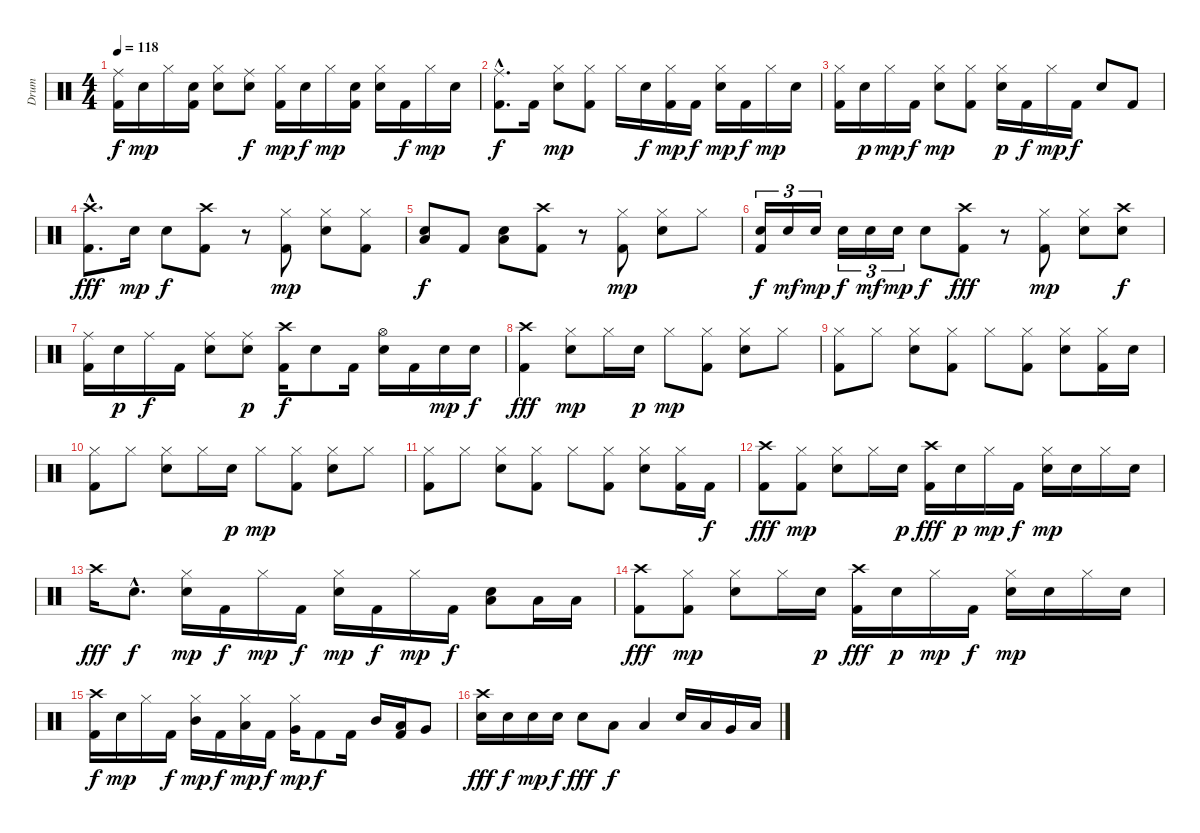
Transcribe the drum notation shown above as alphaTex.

\track ("Drum" "Drum") {instrument percussion}
\staff {score}
\articulation defaults
\ts (4 4)
\tempo 118
\clef neutral
\ks c
("Ride (middle)" "Kick (hit) 2").16{dy f} "Snare (hit) 2".16{dy mp} "Hi-Hat (closed)".16 ("Snare (hit) 2" "Kick (hit) 2").16 ("Hi-Hat (closed)" "Snare (hit) 2").8 ("Ride (middle)" "Snare (hit) 2").8{dy f} ("Hi-Hat (closed)" "Kick (hit) 2").16{dy mp} "Snare (hit) 2".16{dy f} "Hi-Hat (closed)".16{dy mp} ("Snare (hit) 2" "Kick (hit) 2").16 ("Hi-Hat (closed)" "Snare (hit) 2").16 "Kick (hit) 2".16{dy f} "Hi-Hat (closed)".16{dy mp} "Snare (hit) 2".16 |
("Ride (middle)"{hac} "Kick (hit) 2"{hac}).8{d dy f} "Kick (hit) 2".16 ("Hi-Hat (closed)" "Snare (hit) 2").8{dy mp} ("Hi-Hat (closed)" "Kick (hit) 2").8 "Hi-Hat (closed)".16 "Snare (hit) 2".16{dy f} ("Hi-Hat (closed)" "Kick (hit) 2").16{dy mp} "Kick (hit) 2".16{dy f} ("Hi-Hat (closed)" "Snare (hit) 2").16{dy mp} "Kick (hit) 2".16{dy f} "Hi-Hat (closed)".16{dy mp} "Snare (hit) 2".16 |
("Hi-Hat (closed)" "Kick (hit) 2").16 "Snare (hit) 2".16{dy p} "Hi-Hat (closed)".16{dy mp} "Kick (hit) 2".16{dy f} ("Hi-Hat (closed)" "Snare (hit) 2").8{dy mp} ("Hi-Hat (closed)" "Kick (hit) 2").8 ("Hi-Hat (closed)" "Snare (hit) 2").16{dy p} "Kick (hit) 2".16{dy f} "Hi-Hat (closed)".16{dy mp} "Kick (hit) 2".16{dy f} "Snare (hit) 2".8 "Kick (hit) 2".8 |
("Crash high (hit)"{hac} "Kick (hit) 2"{hac}).8{d dy fff} "Snare (hit) 2".16{dy mp} "Snare (hit) 2".8{dy f} ("Crash high (hit)" "Kick (hit) 2").8 r.8 ("Hi-Hat (closed)" "Kick (hit) 2").8{dy mp} ("Hi-Hat (closed)" "Snare (hit) 2").8 ("Hi-Hat (closed)" "Kick (hit) 2").8 |
("Snare (hit) 2" "Low Tom (hit)").8{dy f} "Kick (hit) 2".8 ("Snare (hit) 2" "Low Tom (hit)").8 ("Crash high (hit)" "Kick (hit) 2").8 r.8 ("Hi-Hat (closed)" "Kick (hit) 2").8{dy mp} ("Hi-Hat (closed)" "Snare (hit) 2").8 "Hi-Hat (closed)".8 |
("Snare (hit) 2" "Kick (hit) 2").16{tu (3 2) dy f} "Snare (hit) 2".16{tu (3 2) dy mf} "Snare (hit) 2".16{tu (3 2) dy mp} "Snare (hit) 2".16{tu (3 2) dy f} "Snare (hit) 2".16{tu (3 2) dy mf} "Snare (hit) 2".16{tu (3 2) dy mp} "Snare (hit) 2".8{dy f} ("Kick (hit) 2" "Crash high (hit)").8{dy fff} r.8 ("Hi-Hat (closed)" "Kick (hit) 2").8{dy mp} ("Hi-Hat (closed)" "Snare (hit) 2").8 ("Crash high (hit)" "Snare (hit) 2").8{dy f} |
("Ride (middle)" "Kick (hit) 2").16 "Snare (hit) 2".16{dy p} "Ride (middle)".16{dy f} "Kick (hit) 2".16 ("Snare (hit) 2" "Ride (middle)").8 ("Snare (hit) 2" "Ride (middle)").8{dy p} ("Crash high (hit)" "Kick (hit) 2").16{dy f} "Snare (hit) 2".8 "Kick (hit) 2".16 ("Hi-Hat (open)" "Snare (hit) 2").16 "Kick (hit) 2".16 "Snare (hit) 2".16{dy mp} "Snare (hit) 2".16{dy f} |
("Crash high (hit)" "Kick (hit) 2").4{dy fff} ("Hi-Hat (closed)" "Snare (hit) 2").8{dy mp} "Hi-Hat (closed)".16 "Snare (hit) 2".16{dy p} "Hi-Hat (closed)".8{dy mp} ("Hi-Hat (closed)" "Kick (hit) 2").8 ("Hi-Hat (closed)" "Snare (hit) 2").8 "Hi-Hat (closed)".8 |
("Hi-Hat (closed)" "Kick (hit) 2").8 "Hi-Hat (closed)".8 ("Hi-Hat (closed)" "Snare (hit) 2").8 ("Hi-Hat (closed)" "Kick (hit) 2").8 "Hi-Hat (closed)".8 ("Hi-Hat (closed)" "Kick (hit) 2").8 ("Hi-Hat (closed)" "Snare (hit) 2").8 ("Hi-Hat (closed)" "Kick (hit) 2").16 "Snare (hit) 2".16 |
("Hi-Hat (closed)" "Kick (hit) 2").8 "Hi-Hat (closed)".8 ("Hi-Hat (closed)" "Snare (hit) 2").8 "Hi-Hat (closed)".16 "Snare (hit) 2".16{dy p} "Hi-Hat (closed)".8{dy mp} ("Hi-Hat (closed)" "Kick (hit) 2").8 ("Hi-Hat (closed)" "Snare (hit) 2").8 "Hi-Hat (closed)".8 |
("Hi-Hat (closed)" "Kick (hit) 2").8 "Hi-Hat (closed)".8 ("Hi-Hat (closed)" "Snare (hit) 2").8 ("Hi-Hat (closed)" "Kick (hit) 2").8 "Hi-Hat (closed)".8 ("Hi-Hat (closed)" "Kick (hit) 2").8 ("Hi-Hat (closed)" "Snare (hit) 2").8 ("Hi-Hat (closed)" "Kick (hit) 2").16 "Kick (hit) 2".16{dy f} |
("Crash high (hit)" "Kick (hit) 2").8{dy fff} ("Hi-Hat (closed)" "Kick (hit) 2").8{dy mp} ("Hi-Hat (closed)" "Snare (hit) 2").8 "Hi-Hat (closed)".16 "Snare (hit) 2".16{dy p} ("Crash high (hit)" "Kick (hit) 2").16{dy fff} "Snare (hit) 2".16{dy p} "Hi-Hat (closed)".16{dy mp} "Kick (hit) 2".16{dy f} ("Hi-Hat (closed)" "Snare (hit) 2").16{dy mp} "Snare (hit) 2".16 "Hi-Hat (closed)".16 "Snare (hit) 2".16 |
"Crash high (hit)".16{dy fff} "Snare (hit) 2"{hac}.8{d dy f} ("Hi-Hat (closed)" "Snare (hit) 2").16{dy mp} "Kick (hit) 2".16{dy f} "Hi-Hat (closed)".16{dy mp} "Kick (hit) 2".16{dy f} ("Hi-Hat (closed)" "Snare (hit) 2").16{dy mp} "Kick (hit) 2".16{dy f} "Hi-Hat (closed)".16{dy mp} "Kick (hit) 2".16{dy f} ("Snare (hit) 2" "Low Floor Tom (hit)").8 "Low Floor Tom (hit)".16 "Low Floor Tom (hit)".16 |
("Crash high (hit)" "Kick (hit) 2").8{dy fff} ("Hi-Hat (closed)" "Kick (hit) 2").8{dy mp} ("Hi-Hat (closed)" "Snare (hit) 2").8 "Hi-Hat (closed)".16 "Snare (hit) 2".16{dy p} ("Crash high (hit)" "Kick (hit) 2").16{dy fff} "Snare (hit) 2".16{dy p} "Hi-Hat (closed)".16{dy mp} "Kick (hit) 2".16{dy f} ("Hi-Hat (closed)" "Snare (hit) 2").16{dy mp} "Snare (hit) 2".16 "Hi-Hat (closed)".16 "Snare (hit) 2".16 |
("Crash high (hit)" "Kick (hit) 2").16{dy f} "Snare (hit) 2".16{dy mp} "Hi-Hat (closed)".16 "Kick (hit) 2".16{dy f} ("Hi-Hat (closed)" "Mid Tom (hit)").16{dy mp} "Kick (hit) 2".16{dy f} ("Hi-Hat (closed)" "Low Tom (hit)").16{dy mp} "Kick (hit) 2".16{dy f} ("Hi-Hat (closed)" "Very Low Tom (hit)").16{dy mp} "Kick (hit) 2".8{dy f} "Kick (hit) 2".16 "Mid Tom (hit)".16 ("Low Tom (hit)" "Kick (hit) 2").16 "Very Low Tom (hit)".8 |
("Crash high (hit)" "Snare (hit) 2").16{dy fff} "Snare (hit) 2".16{dy f} "Snare (hit) 2".16{dy mp} "Snare (hit) 2".16{dy f} "Snare (hit) 2".8{dy fff} "Low Tom (hit)".8{dy f} "Low Tom (hit)".4 "Snare (hit) 2".16 "Low Tom (hit)".16 "Very Low Tom (hit)".16 "Low Floor Tom (hit)".16
